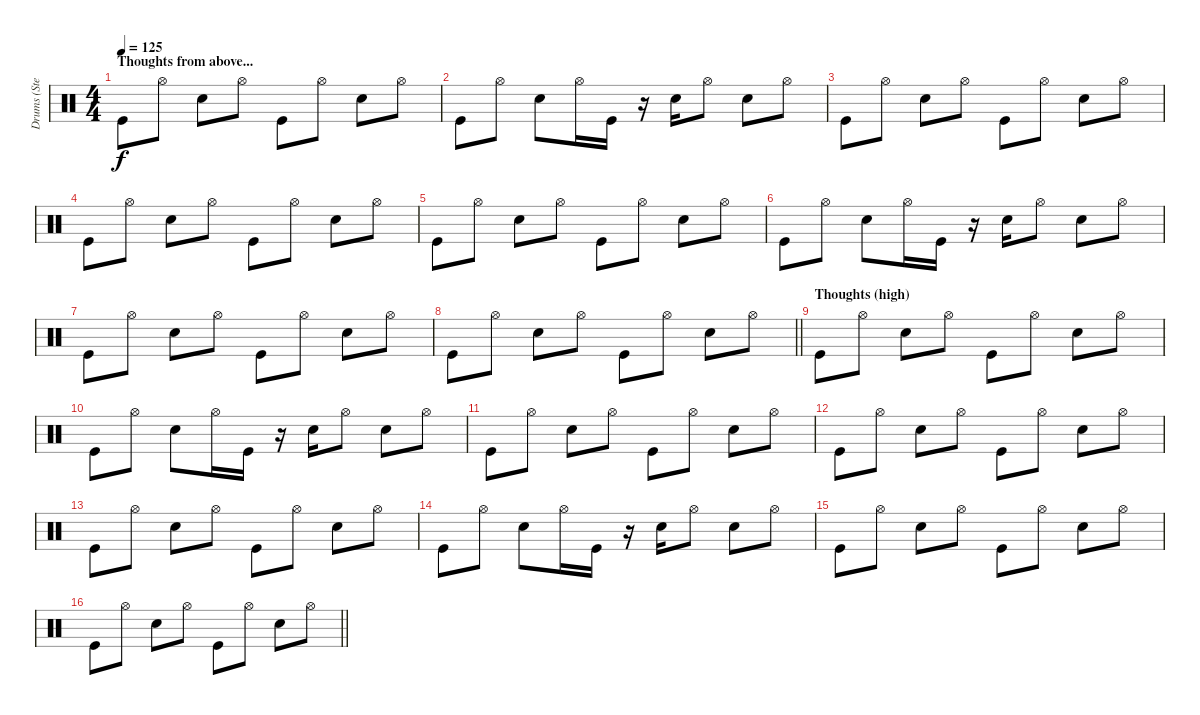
\track ("Drums (Steve)" "Drums (Ste") {instrument percussion}
\staff {score}
\articulation defaults
\ts (4 4)
\section ("" "Thoughts from above...")
\tempo 125
\clef neutral
\ks c "Kick (hit)".8{dy f} "Hi-Hat (open)".8 "Electric Snare (hit)".8 "Hi-Hat (open)".8 "Kick (hit)".8 "Hi-Hat (open)".8 "Electric Snare (hit)".8 "Hi-Hat (open)".8
|
"Kick (hit)".8 "Hi-Hat (open)".8 "Electric Snare (hit)".8 "Hi-Hat (open)".16 "Kick (hit)".16 r.16 "Electric Snare (hit)".16 "Hi-Hat (open)".8 "Electric Snare (hit)".8 "Hi-Hat (open)".8 |
"Kick (hit)".8 "Hi-Hat (open)".8 "Electric Snare (hit)".8 "Hi-Hat (open)".8 "Kick (hit)".8 "Hi-Hat (open)".8 "Electric Snare (hit)".8 "Hi-Hat (open)".8 |
"Kick (hit)".8 "Hi-Hat (open)".8 "Electric Snare (hit)".8 "Hi-Hat (open)".8 "Kick (hit)".8 "Hi-Hat (open)".8 "Electric Snare (hit)".8 "Hi-Hat (open)".8 |
"Kick (hit)".8 "Hi-Hat (open)".8 "Electric Snare (hit)".8 "Hi-Hat (open)".8 "Kick (hit)".8 "Hi-Hat (open)".8 "Electric Snare (hit)".8 "Hi-Hat (open)".8 |
"Kick (hit)".8 "Hi-Hat (open)".8 "Electric Snare (hit)".8 "Hi-Hat (open)".16 "Kick (hit)".16 r.16 "Electric Snare (hit)".16 "Hi-Hat (open)".8 "Electric Snare (hit)".8 "Hi-Hat (open)".8 |
"Kick (hit)".8 "Hi-Hat (open)".8 "Electric Snare (hit)".8 "Hi-Hat (open)".8 "Kick (hit)".8 "Hi-Hat (open)".8 "Electric Snare (hit)".8 "Hi-Hat (open)".8 |
\barLineRight lightlight "Kick (hit)".8 "Hi-Hat (open)".8 "Electric Snare (hit)".8 "Hi-Hat (open)".8 "Kick (hit)".8 "Hi-Hat (open)".8 "Electric Snare (hit)".8 "Hi-Hat (open)".8
|
\section ("" "Thoughts (high)")
"Kick (hit)".8 "Hi-Hat (open)".8 "Electric Snare (hit)".8 "Hi-Hat (open)".8 "Kick (hit)".8 "Hi-Hat (open)".8 "Electric Snare (hit)".8 "Hi-Hat (open)".8 |
"Kick (hit)".8 "Hi-Hat (open)".8 "Electric Snare (hit)".8 "Hi-Hat (open)".16 "Kick (hit)".16 r.16 "Electric Snare (hit)".16 "Hi-Hat (open)".8 "Electric Snare (hit)".8 "Hi-Hat (open)".8 |
"Kick (hit)".8 "Hi-Hat (open)".8 "Electric Snare (hit)".8 "Hi-Hat (open)".8 "Kick (hit)".8 "Hi-Hat (open)".8 "Electric Snare (hit)".8 "Hi-Hat (open)".8 |
"Kick (hit)".8 "Hi-Hat (open)".8 "Electric Snare (hit)".8 "Hi-Hat (open)".8 "Kick (hit)".8 "Hi-Hat (open)".8 "Electric Snare (hit)".8 "Hi-Hat (open)".8 |
"Kick (hit)".8 "Hi-Hat (open)".8 "Electric Snare (hit)".8 "Hi-Hat (open)".8 "Kick (hit)".8 "Hi-Hat (open)".8 "Electric Snare (hit)".8 "Hi-Hat (open)".8 |
"Kick (hit)".8 "Hi-Hat (open)".8 "Electric Snare (hit)".8 "Hi-Hat (open)".16 "Kick (hit)".16 r.16 "Electric Snare (hit)".16 "Hi-Hat (open)".8 "Electric Snare (hit)".8 "Hi-Hat (open)".8 |
"Kick (hit)".8 "Hi-Hat (open)".8 "Electric Snare (hit)".8 "Hi-Hat (open)".8 "Kick (hit)".8 "Hi-Hat (open)".8 "Electric Snare (hit)".8 "Hi-Hat (open)".8 |
\barLineRight lightlight "Kick (hit)".8 "Hi-Hat (open)".8 "Electric Snare (hit)".8 "Hi-Hat (open)".8 "Kick (hit)".8 "Hi-Hat (open)".8 "Electric Snare (hit)".8 "Hi-Hat (open)".8
